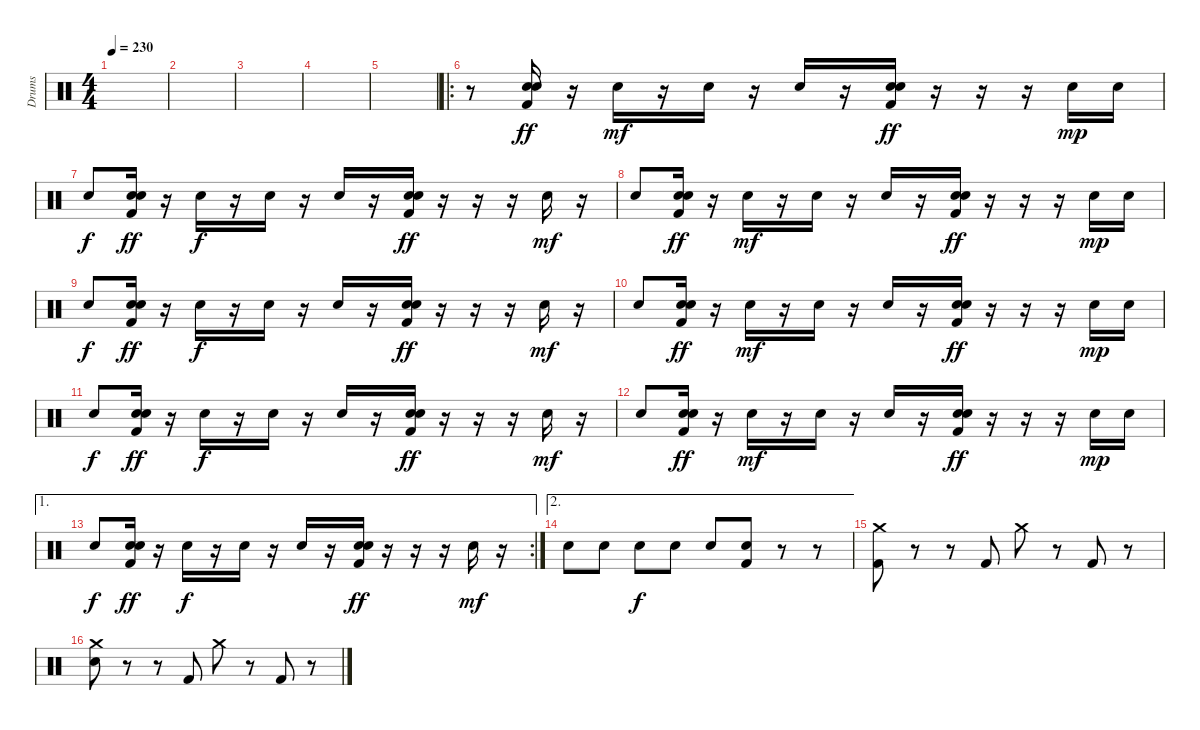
\track ("Drums" "Drums") {instrument percussion}
\staff {score}
\articulation defaults
\ts (4 4)
\tempo 230
\clef neutral
\ks c
|
|
|
|
|
\ro
r.8 ("Kick (hit) 2" "Electric Snare (hit)" "Snare (hit) 2").16{dy ff} r.16 "Electric Snare (hit)".16{dy mf} r.16 "Electric Snare (hit)".16 r.16 "Electric Snare (hit)".16 r.16 ("Kick (hit) 2" "Electric Snare (hit)" "Snare (hit) 2").16{dy ff} r.16 r.16 r.16 "Electric Snare (hit)".16{dy mp} "Electric Snare (hit)".16 |
"Electric Snare (hit)".8{dy f} ("Kick (hit) 2" "Electric Snare (hit)" "Snare (hit) 2").16{dy ff} r.16 "Electric Snare (hit)".16{dy f} r.16 "Electric Snare (hit)".16 r.16 "Electric Snare (hit)".16 r.16 ("Kick (hit) 2" "Electric Snare (hit)" "Snare (hit) 2").16{dy ff} r.16 r.16 r.16 "Electric Snare (hit)".16{dy mf} r.16 |
"Electric Snare (hit)".8 ("Kick (hit) 2" "Electric Snare (hit)" "Snare (hit) 2").16{dy ff} r.16 "Electric Snare (hit)".16{dy mf} r.16 "Electric Snare (hit)".16 r.16 "Electric Snare (hit)".16 r.16 ("Kick (hit) 2" "Electric Snare (hit)" "Snare (hit) 2").16{dy ff} r.16 r.16 r.16 "Electric Snare (hit)".16{dy mp} "Electric Snare (hit)".16 |
"Electric Snare (hit)".8{dy f} ("Kick (hit) 2" "Electric Snare (hit)" "Snare (hit) 2").16{dy ff} r.16 "Electric Snare (hit)".16{dy f} r.16 "Electric Snare (hit)".16 r.16 "Electric Snare (hit)".16 r.16 ("Kick (hit) 2" "Electric Snare (hit)" "Snare (hit) 2").16{dy ff} r.16 r.16 r.16 "Electric Snare (hit)".16{dy mf} r.16 |
"Electric Snare (hit)".8 ("Kick (hit) 2" "Electric Snare (hit)" "Snare (hit) 2").16{dy ff} r.16 "Electric Snare (hit)".16{dy mf} r.16 "Electric Snare (hit)".16 r.16 "Electric Snare (hit)".16 r.16 ("Kick (hit) 2" "Electric Snare (hit)" "Snare (hit) 2").16{dy ff} r.16 r.16 r.16 "Electric Snare (hit)".16{dy mp} "Electric Snare (hit)".16 |
"Electric Snare (hit)".8{dy f} ("Kick (hit) 2" "Electric Snare (hit)" "Snare (hit) 2").16{dy ff} r.16 "Electric Snare (hit)".16{dy f} r.16 "Electric Snare (hit)".16 r.16 "Electric Snare (hit)".16 r.16 ("Kick (hit) 2" "Electric Snare (hit)" "Snare (hit) 2").16{dy ff} r.16 r.16 r.16 "Electric Snare (hit)".16{dy mf} r.16 |
"Electric Snare (hit)".8 ("Kick (hit) 2" "Electric Snare (hit)" "Snare (hit) 2").16{dy ff} r.16 "Electric Snare (hit)".16{dy mf} r.16 "Electric Snare (hit)".16 r.16 "Electric Snare (hit)".16 r.16 ("Kick (hit) 2" "Electric Snare (hit)" "Snare (hit) 2").16{dy ff} r.16 r.16 r.16 "Electric Snare (hit)".16{dy mp} "Electric Snare (hit)".16 |
\ae 1
\rc 2 "Electric Snare (hit)".8{dy f}
("Kick (hit) 2" "Electric Snare (hit)" "Snare (hit) 2").16{dy ff} r.16 "Electric Snare (hit)".16{dy f} r.16 "Electric Snare (hit)".16 r.16 "Electric Snare (hit)".16 r.16 ("Kick (hit) 2" "Electric Snare (hit)" "Snare (hit) 2").16{dy ff} r.16 r.16 r.16 "Electric Snare (hit)".16{dy mf} r.16 |
\ae 2 "Electric Snare (hit)".8 "Electric Snare (hit)".8 "Electric Snare (hit)".8{dy f} "Electric Snare (hit)".8 "Electric Snare (hit)".8
("Kick (hit) 2" "Electric Snare (hit)").8 r.8 r.8 |
("Kick (hit) 2" "Crash medium (hit)").8 r.8 r.8 "Kick (hit) 2".8 "Crash medium (hit)".8 r.8 "Kick (hit) 2".8 r.8 |
("Electric Snare (hit)" "Crash medium (hit)").8 r.8 r.8 "Kick (hit) 2".8 "Crash medium (hit)".8 r.8 "Kick (hit) 2".8 r.8
